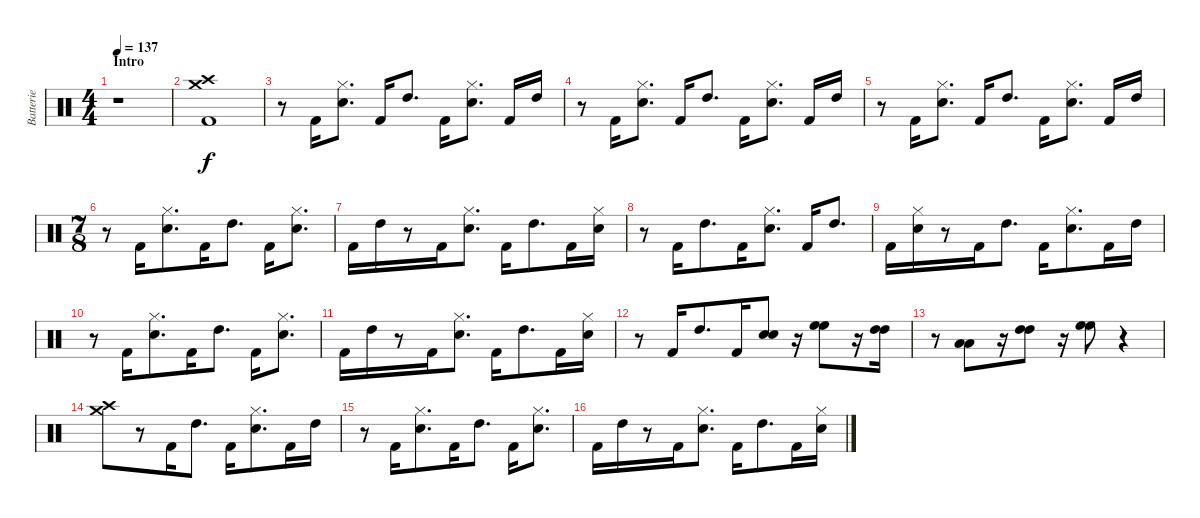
\track ("Batterie" "Batterie") {instrument percussion}
\staff {score}
\articulation defaults
\ts (4 4)
\section ("" "Intro")
\tempo 137
\clef neutral
\ks c
r.1{dy f} |
("Kick (hit) 2" "Crash high (hit)" "Crash medium (hit)").1 |
r.8{volume 0} "Kick (hit) 2".16{volume 14} ("Snare (hit) 2" "Hi-Hat (closed)").8{d} "Kick (hit) 2".16 "High Tom (hit)".8{d} "Kick (hit) 2".16 ("Snare (hit) 2" "Hi-Hat (closed)").8{d} "Kick (hit) 2".16 "High Tom (hit)".16 |
r.8 "Kick (hit) 2".16 ("Snare (hit) 2" "Hi-Hat (closed)").8{d} "Kick (hit) 2".16 "High Tom (hit)".8{d} "Kick (hit) 2".16 ("Snare (hit) 2" "Hi-Hat (closed)").8{d} "Kick (hit) 2".16 "High Tom (hit)".16 |
r.8 "Kick (hit) 2".16 ("Snare (hit) 2" "Hi-Hat (closed)").8{d} "Kick (hit) 2".16 "High Tom (hit)".8{d} "Kick (hit) 2".16 ("Snare (hit) 2" "Hi-Hat (closed)").8{d} "Kick (hit) 2".16 "High Tom (hit)".16 |
\ts (7 8)
r.8 "Kick (hit) 2".16 ("Snare (hit) 2" "Hi-Hat (closed)").8{d} "Kick (hit) 2".16 "High Tom (hit)".8{d} "Kick (hit) 2".16 ("Snare (hit) 2" "Hi-Hat (closed)").8{d} |
"Kick (hit) 2".16 "High Tom (hit)".16 r.8 "Kick (hit) 2".16 ("Snare (hit) 2" "Hi-Hat (closed)").8{d} "Kick (hit) 2".16 "High Tom (hit)".8{d} "Kick (hit) 2".16 ("Snare (hit) 2" "Hi-Hat (closed)").16 |
r.8 "Kick (hit) 2".16 "High Tom (hit)".8{d} "Kick (hit) 2".16 ("Snare (hit) 2" "Hi-Hat (closed)").8{d} "Kick (hit) 2".16 "High Tom (hit)".8{d} |
"Kick (hit) 2".16 ("Snare (hit) 2" "Hi-Hat (closed)").16 r.8 "Kick (hit) 2".16 "High Tom (hit)".8{d} "Kick (hit) 2".16 ("Snare (hit) 2" "Hi-Hat (closed)").8{d} "Kick (hit) 2".16 "High Tom (hit)".16 |
r.8 "Kick (hit) 2".16 ("Snare (hit) 2" "Hi-Hat (closed)").8{d} "Kick (hit) 2".16 "High Tom (hit)".8{d} "Kick (hit) 2".16 ("Snare (hit) 2" "Hi-Hat (closed)").8{d} |
"Kick (hit) 2".16 "High Tom (hit)".16 r.8 "Kick (hit) 2".16 ("Snare (hit) 2" "Hi-Hat (closed)").8{d} "Kick (hit) 2".16 "High Tom (hit)".8{d} "Kick (hit) 2".16 ("Snare (hit) 2" "Hi-Hat (closed)").16 |
r.8 "Kick (hit) 2".16 "High Tom (hit)".8{d} "Kick (hit) 2".16 ("Snare (hit) 2" "Snare (hit) 2").8 r.16 ("High Floor Tom (hit)" "High Floor Tom (hit)").8 r.16 ("High Tom (hit)" "High Tom (hit)").16 |
r.8 ("Low Tom (hit)" "Low Tom (hit)").8 r.16 ("High Tom (hit)" "High Tom (hit)").8 r.16 ("High Floor Tom (hit)" "High Floor Tom (hit)").8 r.4 |
("Crash high (hit)" "Crash medium (hit)").8 r.8 "Kick (hit) 2".16 "High Tom (hit)".8{d} "Kick (hit) 2".16 ("Snare (hit) 2" "Hi-Hat (closed)").8{d} "Kick (hit) 2".16 "High Tom (hit)".16 |
r.8 "Kick (hit) 2".16 ("Snare (hit) 2" "Hi-Hat (closed)").8{d} "Kick (hit) 2".16 "High Tom (hit)".8{d} "Kick (hit) 2".16 ("Snare (hit) 2" "Hi-Hat (closed)").8{d} |
"Kick (hit) 2".16 "High Tom (hit)".16 r.8 "Kick (hit) 2".16 ("Snare (hit) 2" "Hi-Hat (closed)").8{d} "Kick (hit) 2".16 "High Tom (hit)".8{d} "Kick (hit) 2".16 ("Snare (hit) 2" "Hi-Hat (closed)").16
